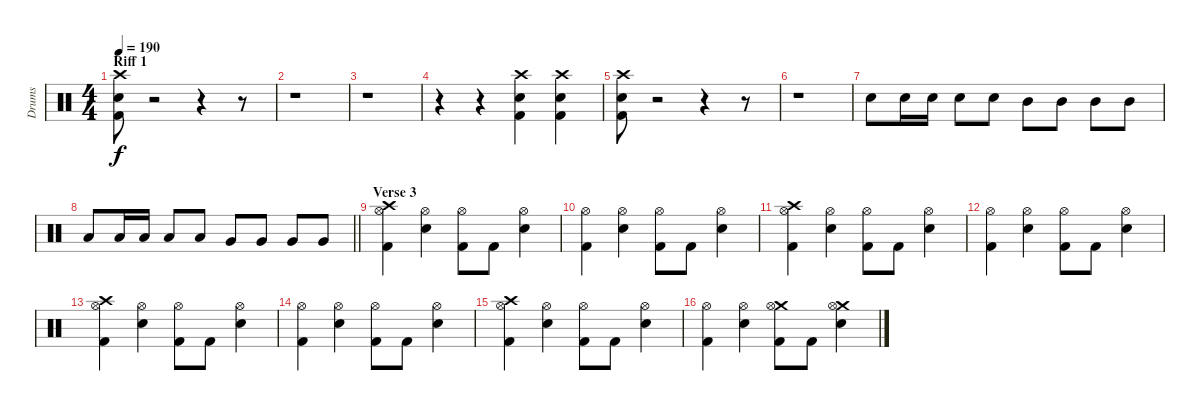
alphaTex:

\track ("Drums" "Drums") {instrument percussion}
\staff {score}
\articulation defaults
\ts (4 4)
\section ("" "Riff 1")
\tempo 190
\clef neutral
\ks c
("Crash high (hit)" "Electric Snare (hit)" "Kick (hit) 2").8{dy f} r.2 r.4 r.8 |
r.1 |
r.1 |
r.4 r.4 ("Crash high (hit)" "Electric Snare (hit)" "Kick (hit) 2").4 ("Crash high (hit)" "Electric Snare (hit)" "Kick (hit) 2").4 |
("Crash high (hit)" "Electric Snare (hit)" "Kick (hit) 2").8 r.2 r.4 r.8 |
r.1 |
"Electric Snare (hit)".8 "Electric Snare (hit)".16 "Electric Snare (hit)".16 "Electric Snare (hit)".8 "Electric Snare (hit)".8 "Mid Tom (hit)".8 "Mid Tom (hit)".8 "Mid Tom (hit)".8 "Mid Tom (hit)".8 |
\barLineRight lightlight "Low Tom (hit)".8 "Low Tom (hit)".16 "Low Tom (hit)".16 "Low Tom (hit)".8 "Low Tom (hit)".8 "Very Low Tom (hit)".8 "Very Low Tom (hit)".8 "Very Low Tom (hit)".8 "Very Low Tom (hit)".8
|
\section ("" "Verse 3")
("Crash high (hit)" "Hi-Hat (open)" "Kick (hit) 2").4 ("Hi-Hat (open)" "Electric Snare (hit)").4 ("Hi-Hat (open)" "Kick (hit) 2").8 "Kick (hit) 2".8 ("Hi-Hat (open)" "Electric Snare (hit)").4 |
("Hi-Hat (open)" "Kick (hit) 2").4 ("Hi-Hat (open)" "Electric Snare (hit)").4 ("Hi-Hat (open)" "Kick (hit) 2").8 "Kick (hit) 2".8 ("Hi-Hat (open)" "Electric Snare (hit)").4 |
("Crash high (hit)" "Hi-Hat (open)" "Kick (hit) 2").4 ("Hi-Hat (open)" "Electric Snare (hit)").4 ("Hi-Hat (open)" "Kick (hit) 2").8 "Kick (hit) 2".8 ("Hi-Hat (open)" "Electric Snare (hit)").4 |
("Hi-Hat (open)" "Kick (hit) 2").4 ("Hi-Hat (open)" "Electric Snare (hit)").4 ("Hi-Hat (open)" "Kick (hit) 2").8 "Kick (hit) 2".8 ("Hi-Hat (open)" "Electric Snare (hit)").4 |
("Crash high (hit)" "Hi-Hat (open)" "Kick (hit) 2").4 ("Hi-Hat (open)" "Electric Snare (hit)").4 ("Hi-Hat (open)" "Kick (hit) 2").8 "Kick (hit) 2".8 ("Hi-Hat (open)" "Electric Snare (hit)").4 |
("Hi-Hat (open)" "Kick (hit) 2").4 ("Hi-Hat (open)" "Electric Snare (hit)").4 ("Hi-Hat (open)" "Kick (hit) 2").8 "Kick (hit) 2".8 ("Hi-Hat (open)" "Electric Snare (hit)").4 |
("Crash high (hit)" "Hi-Hat (open)" "Kick (hit) 2").4 ("Hi-Hat (open)" "Electric Snare (hit)").4 ("Hi-Hat (open)" "Kick (hit) 2").8 "Kick (hit) 2".8 ("Hi-Hat (open)" "Electric Snare (hit)").4 |
("Hi-Hat (open)" "Kick (hit) 2").4 ("Hi-Hat (open)" "Electric Snare (hit)").4 ("Crash medium (hit)" "Hi-Hat (open)" "Kick (hit) 2").8 "Kick (hit) 2".8 ("Crash medium (hit)" "Hi-Hat (open)" "Electric Snare (hit)").4
